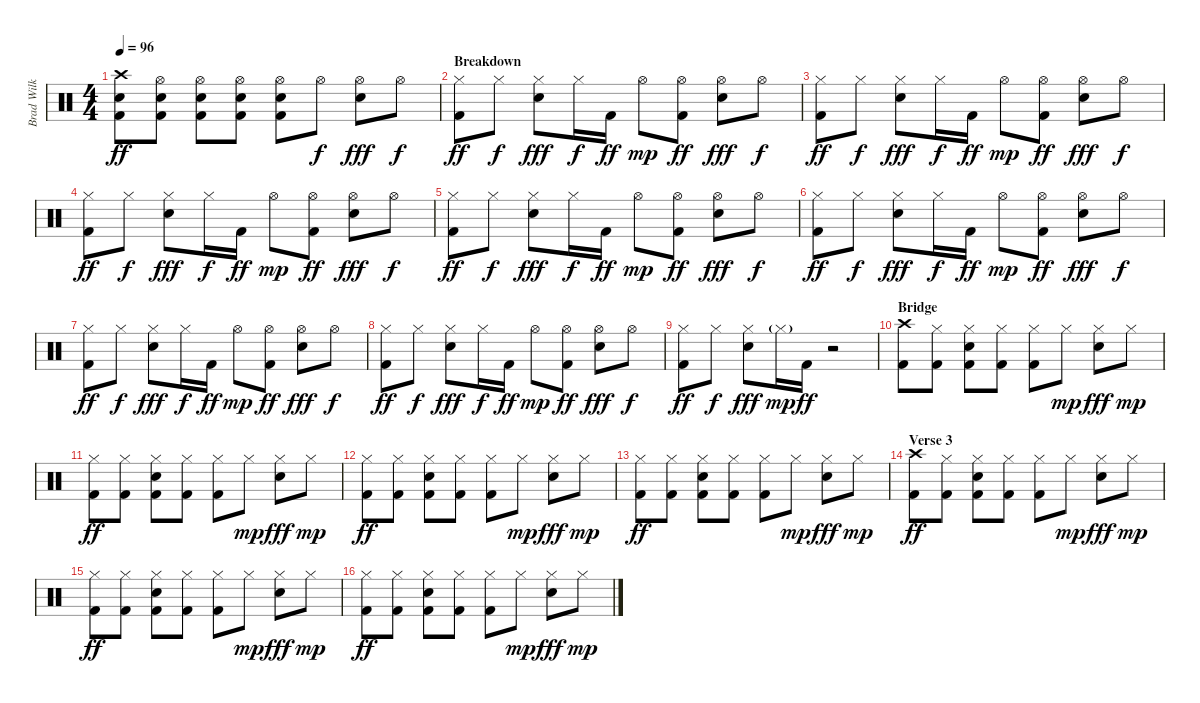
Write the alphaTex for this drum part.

\track ("Brad Wilk / Drums" "Brad Wilk ") {instrument percussion}
\staff {score}
\articulation defaults
\ts (4 4)
\tempo 96
\clef neutral
\ks c
("Crash high (hit)" "Electric Snare (hit)" "Kick (hit) 2").8{dy ff} ("Hi-Hat (open)" "Electric Snare (hit)" "Kick (hit) 2").8 ("Hi-Hat (open)" "Electric Snare (hit)" "Kick (hit) 2").8 ("Hi-Hat (open)" "Electric Snare (hit)" "Kick (hit) 2").8 ("Hi-Hat (open)" "Electric Snare (hit)" "Kick (hit) 2").8 "Hi-Hat (open)".8{dy f} ("Hi-Hat (open)" "Electric Snare (hit)").8{dy fff} "Hi-Hat (open)".8{dy f} |
\section ("" "Breakdown")
("Hi-Hat (closed)" "Kick (hit) 2").8{dy ff} "Hi-Hat (closed)".8{dy f} ("Hi-Hat (closed)" "Electric Snare (hit)").8{dy fff} "Hi-Hat (closed)".16{dy f} "Kick (hit) 2".16{dy ff} "Hi-Hat (open)".8{dy mp} ("Hi-Hat (open)" "Kick (hit) 2").8{dy ff} ("Hi-Hat (open)" "Electric Snare (hit)").8{dy fff} "Hi-Hat (open)".8{dy f} |
("Hi-Hat (closed)" "Kick (hit) 2").8{dy ff} "Hi-Hat (closed)".8{dy f} ("Hi-Hat (closed)" "Electric Snare (hit)").8{dy fff} "Hi-Hat (closed)".16{dy f} "Kick (hit) 2".16{dy ff} "Hi-Hat (open)".8{dy mp} ("Hi-Hat (open)" "Kick (hit) 2").8{dy ff} ("Hi-Hat (open)" "Electric Snare (hit)").8{dy fff} "Hi-Hat (open)".8{dy f} |
("Hi-Hat (closed)" "Kick (hit) 2").8{dy ff} "Hi-Hat (closed)".8{dy f} ("Hi-Hat (closed)" "Electric Snare (hit)").8{dy fff} "Hi-Hat (closed)".16{dy f} "Kick (hit) 2".16{dy ff} "Hi-Hat (open)".8{dy mp} ("Hi-Hat (open)" "Kick (hit) 2").8{dy ff} ("Hi-Hat (open)" "Electric Snare (hit)").8{dy fff} "Hi-Hat (open)".8{dy f} |
("Hi-Hat (closed)" "Kick (hit) 2").8{dy ff} "Hi-Hat (closed)".8{dy f} ("Hi-Hat (closed)" "Electric Snare (hit)").8{dy fff} "Hi-Hat (closed)".16{dy f} "Kick (hit) 2".16{dy ff} "Hi-Hat (open)".8{dy mp} ("Hi-Hat (open)" "Kick (hit) 2").8{dy ff} ("Hi-Hat (open)" "Electric Snare (hit)").8{dy fff} "Hi-Hat (open)".8{dy f} |
("Hi-Hat (closed)" "Kick (hit) 2").8{dy ff} "Hi-Hat (closed)".8{dy f} ("Hi-Hat (closed)" "Electric Snare (hit)").8{dy fff} "Hi-Hat (closed)".16{dy f} "Kick (hit) 2".16{dy ff} "Hi-Hat (open)".8{dy mp} ("Hi-Hat (open)" "Kick (hit) 2").8{dy ff} ("Hi-Hat (open)" "Electric Snare (hit)").8{dy fff} "Hi-Hat (open)".8{dy f} |
("Hi-Hat (closed)" "Kick (hit) 2").8{dy ff} "Hi-Hat (closed)".8{dy f} ("Hi-Hat (closed)" "Electric Snare (hit)").8{dy fff} "Hi-Hat (closed)".16{dy f} "Kick (hit) 2".16{dy ff} "Hi-Hat (open)".8{dy mp} ("Hi-Hat (open)" "Kick (hit) 2").8{dy ff} ("Hi-Hat (open)" "Electric Snare (hit)").8{dy fff} "Hi-Hat (open)".8{dy f} |
("Hi-Hat (closed)" "Kick (hit) 2").8{dy ff} "Hi-Hat (closed)".8{dy f} ("Hi-Hat (closed)" "Electric Snare (hit)").8{dy fff} "Hi-Hat (closed)".16{dy f} "Kick (hit) 2".16{dy ff} "Hi-Hat (open)".8{dy mp} ("Hi-Hat (open)" "Kick (hit) 2").8{dy ff} ("Hi-Hat (open)" "Electric Snare (hit)").8{dy fff} "Hi-Hat (open)".8{dy f} |
("Hi-Hat (closed)" "Kick (hit) 2").8{dy ff} "Hi-Hat (closed)".8{dy f} ("Hi-Hat (closed)" "Electric Snare (hit)").8{dy fff} "Hi-Hat (closed)"{g}.16{dy mp} "Kick (hit) 2".16{dy ff} r.2 |
\section ("" "Bridge")
("Crash high (hit)" "Kick (hit) 2").8 ("Hi-Hat (closed)" "Kick (hit) 2").8 ("Hi-Hat (closed)" "Electric Snare (hit)" "Kick (hit) 2").8 ("Hi-Hat (closed)" "Kick (hit) 2").8 ("Hi-Hat (closed)" "Kick (hit) 2").8 "Hi-Hat (closed)".8{dy mp} ("Hi-Hat (closed)" "Electric Snare (hit)").8{dy fff} "Hi-Hat (closed)".8{dy mp} |
("Hi-Hat (closed)" "Kick (hit) 2").8{dy ff} ("Hi-Hat (closed)" "Kick (hit) 2").8 ("Hi-Hat (closed)" "Electric Snare (hit)" "Kick (hit) 2").8 ("Hi-Hat (closed)" "Kick (hit) 2").8 ("Hi-Hat (closed)" "Kick (hit) 2").8 "Hi-Hat (closed)".8{dy mp} ("Hi-Hat (closed)" "Electric Snare (hit)").8{dy fff} "Hi-Hat (closed)".8{dy mp} |
("Hi-Hat (closed)" "Kick (hit) 2").8{dy ff} ("Hi-Hat (closed)" "Kick (hit) 2").8 ("Hi-Hat (closed)" "Electric Snare (hit)" "Kick (hit) 2").8 ("Hi-Hat (closed)" "Kick (hit) 2").8 ("Hi-Hat (closed)" "Kick (hit) 2").8 "Hi-Hat (closed)".8{dy mp} ("Hi-Hat (closed)" "Electric Snare (hit)").8{dy fff} "Hi-Hat (closed)".8{dy mp} |
("Hi-Hat (closed)" "Kick (hit) 2").8{dy ff} ("Hi-Hat (closed)" "Kick (hit) 2").8 ("Hi-Hat (closed)" "Electric Snare (hit)" "Kick (hit) 2").8 ("Hi-Hat (closed)" "Kick (hit) 2").8 ("Hi-Hat (closed)" "Kick (hit) 2").8 "Hi-Hat (closed)".8{dy mp} ("Hi-Hat (closed)" "Electric Snare (hit)").8{dy fff} "Hi-Hat (closed)".8{dy mp} |
\section ("" "Verse 3")
("Crash high (hit)" "Kick (hit) 2").8{dy ff} ("Hi-Hat (closed)" "Kick (hit) 2").8 ("Hi-Hat (closed)" "Electric Snare (hit)" "Kick (hit) 2").8 ("Hi-Hat (closed)" "Kick (hit) 2").8 ("Hi-Hat (closed)" "Kick (hit) 2").8 "Hi-Hat (closed)".8{dy mp} ("Hi-Hat (closed)" "Electric Snare (hit)").8{dy fff} "Hi-Hat (closed)".8{dy mp} |
("Hi-Hat (closed)" "Kick (hit) 2").8{dy ff} ("Hi-Hat (closed)" "Kick (hit) 2").8 ("Hi-Hat (closed)" "Electric Snare (hit)" "Kick (hit) 2").8 ("Hi-Hat (closed)" "Kick (hit) 2").8 ("Hi-Hat (closed)" "Kick (hit) 2").8 "Hi-Hat (closed)".8{dy mp} ("Hi-Hat (closed)" "Electric Snare (hit)").8{dy fff} "Hi-Hat (closed)".8{dy mp} |
("Hi-Hat (closed)" "Kick (hit) 2").8{dy ff} ("Hi-Hat (closed)" "Kick (hit) 2").8 ("Hi-Hat (closed)" "Electric Snare (hit)" "Kick (hit) 2").8 ("Hi-Hat (closed)" "Kick (hit) 2").8 ("Hi-Hat (closed)" "Kick (hit) 2").8 "Hi-Hat (closed)".8{dy mp} ("Hi-Hat (closed)" "Electric Snare (hit)").8{dy fff} "Hi-Hat (closed)".8{dy mp}
